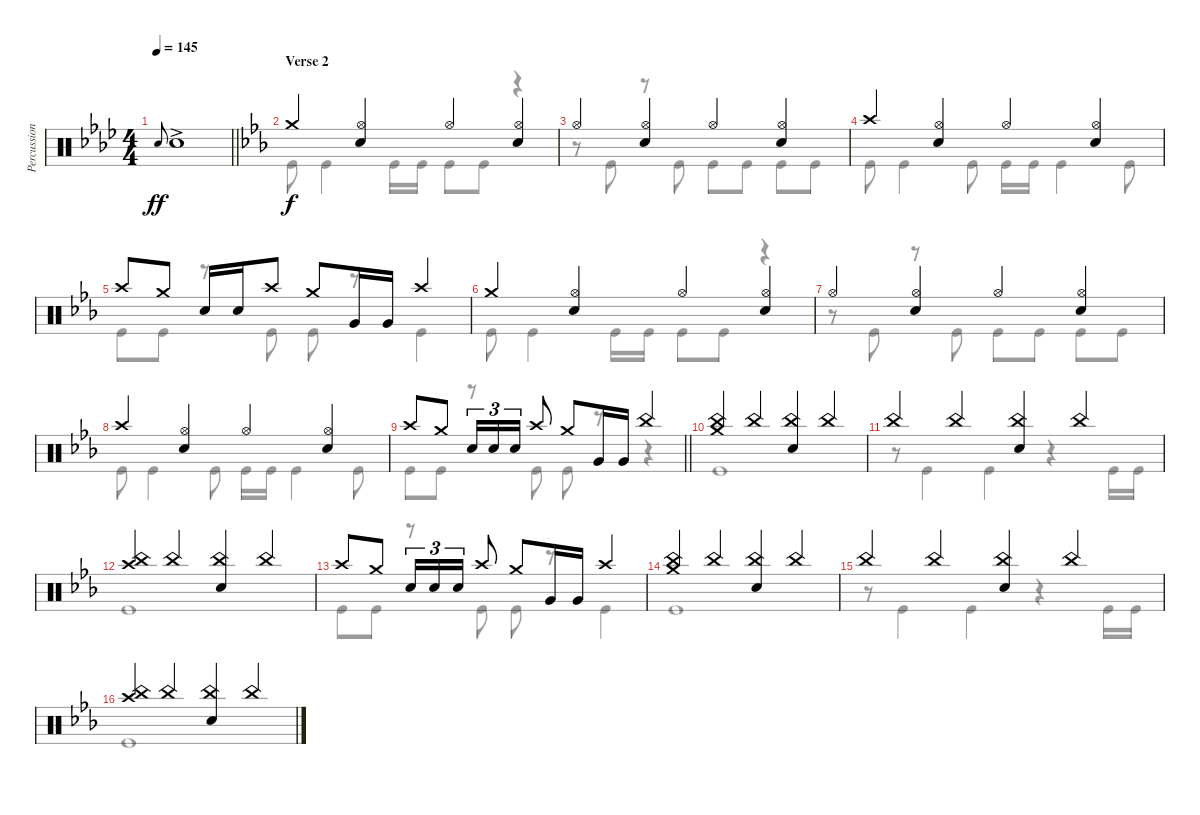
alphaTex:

\track ("Percussion" "Percussion") {instrument percussion}
\staff {score}
\articulation defaults
\voice
\ts (4 4)
\tempo 145
\clef neutral
\barLineRight lightlight
\ks fminor "Electric Snare (hit)".8{gr onbeat dy ff} "Electric Snare (hit)"{ac}.1
|
\section ("" "Verse 2")
\ks cminor "Crash medium (hit)".4{dy f}
("Hi-Hat (open)" "Electric Snare (hit)").4 "Hi-Hat (open)".4 ("Hi-Hat (open)" "Electric Snare (hit)").4 |
"Hi-Hat (open)".4 ("Hi-Hat (open)" "Electric Snare (hit)").4 "Hi-Hat (open)".4 ("Hi-Hat (open)" "Electric Snare (hit)").4 |
"Crash high (hit)".4 ("Hi-Hat (open)" "Electric Snare (hit)").4 "Hi-Hat (open)".4 ("Hi-Hat (open)" "Electric Snare (hit)").4 |
"Crash high (hit)".8 "Crash medium (hit)".8 "Electric Snare (hit)".16 "Electric Snare (hit)".16 "Crash high (hit)".8 "Crash medium (hit)".8 "Very Low Tom (hit)".16 "Very Low Tom (hit)".16 "Crash high (hit)".4 |
"Crash medium (hit)".4 ("Hi-Hat (open)" "Electric Snare (hit)").4 "Hi-Hat (open)".4 ("Hi-Hat (open)" "Electric Snare (hit)").4 |
"Hi-Hat (open)".4 ("Hi-Hat (open)" "Electric Snare (hit)").4 "Hi-Hat (open)".4 ("Hi-Hat (open)" "Electric Snare (hit)").4 |
"Crash high (hit)".4 ("Hi-Hat (open)" "Electric Snare (hit)").4 "Hi-Hat (open)".4 ("Hi-Hat (open)" "Electric Snare (hit)").4 |
\barLineRight lightlight "Crash high (hit)".8 "Crash medium (hit)".8 "Electric Snare (hit)".16{tu (3 2)} "Electric Snare (hit)".16{tu (3 2)} "Electric Snare (hit)".16{tu (3 2)} "Crash high (hit)".8 "Crash medium (hit)".8 "Very Low Tom (hit)".16 "Very Low Tom (hit)".16 "China (hit)".4
|
\section ("" "")
("China (hit)" "Crash medium (hit)").4 "China (hit)".4 ("China (hit)" "Electric Snare (hit)").4 "China (hit)".4 |
"China (hit)".4 "China (hit)".4 ("China (hit)" "Electric Snare (hit)").4 "China (hit)".4 |
("China (hit)" "Crash high (hit)").4 "China (hit)".4 ("China (hit)" "Electric Snare (hit)").4 "China (hit)".4 |
"Crash high (hit)".8 "Crash medium (hit)".8 "Electric Snare (hit)".16{tu (3 2)} "Electric Snare (hit)".16{tu (3 2)} "Electric Snare (hit)".16{tu (3 2)} "Crash high (hit)".8 "Crash medium (hit)".8 "Very Low Tom (hit)".16 "Very Low Tom (hit)".16 "Crash high (hit)".4 |
("China (hit)" "Crash medium (hit)").4 "China (hit)".4 ("China (hit)" "Electric Snare (hit)").4 "China (hit)".4 |
"China (hit)".4 "China (hit)".4 ("China (hit)" "Electric Snare (hit)").4 "China (hit)".4 |
("China (hit)" "Crash high (hit)").4 "China (hit)".4 ("China (hit)" "Electric Snare (hit)").4 "China (hit)".4
\voice
\clef neutral
\ottava regular
\simile none
\barLineRight lightlight
\ks fminor
|
\ks cminor "Kick (hit)".8 "Kick (hit)".4 "Kick (hit)".16 "Kick (hit)".16 "Kick (hit)".8 "Kick (hit)".8
r.4 |
r.8 "Kick (hit)".8 r.8 "Kick (hit)".8 "Kick (hit)".8 "Kick (hit)".8 "Kick (hit)".8 "Kick (hit)".8 |
"Kick (hit)".8 "Kick (hit)".4 "Kick (hit)".8 "Kick (hit)".16 "Kick (hit)".16 "Kick (hit)".4 "Kick (hit)".8 |
"Kick (hit)".8 "Kick (hit)".8 r.8 "Kick (hit)".8 "Kick (hit)".8 r.8 "Kick (hit)".4 |
"Kick (hit)".8 "Kick (hit)".4 "Kick (hit)".16 "Kick (hit)".16 "Kick (hit)".8 "Kick (hit)".8 r.4 |
r.8 "Kick (hit)".8 r.8 "Kick (hit)".8 "Kick (hit)".8 "Kick (hit)".8 "Kick (hit)".8 "Kick (hit)".8 |
"Kick (hit)".8 "Kick (hit)".4 "Kick (hit)".8 "Kick (hit)".16 "Kick (hit)".16 "Kick (hit)".4 "Kick (hit)".8 |
\barLineRight lightlight "Kick (hit)".8 "Kick (hit)".8
r.8 "Kick (hit)".8 "Kick (hit)".8 r.8 r.4 |
"Kick (hit)".1 |
r.8 "Kick (hit)".4 "Kick (hit)".4 r.4 "Kick (hit)".16 "Kick (hit)".16 |
"Kick (hit)".1 |
"Kick (hit)".8 "Kick (hit)".8 r.8 "Kick (hit)".8 "Kick (hit)".8 r.8 "Kick (hit)".4 |
"Kick (hit)".1 |
r.8 "Kick (hit)".4 "Kick (hit)".4 r.4 "Kick (hit)".16 "Kick (hit)".16 |
"Kick (hit)".1
